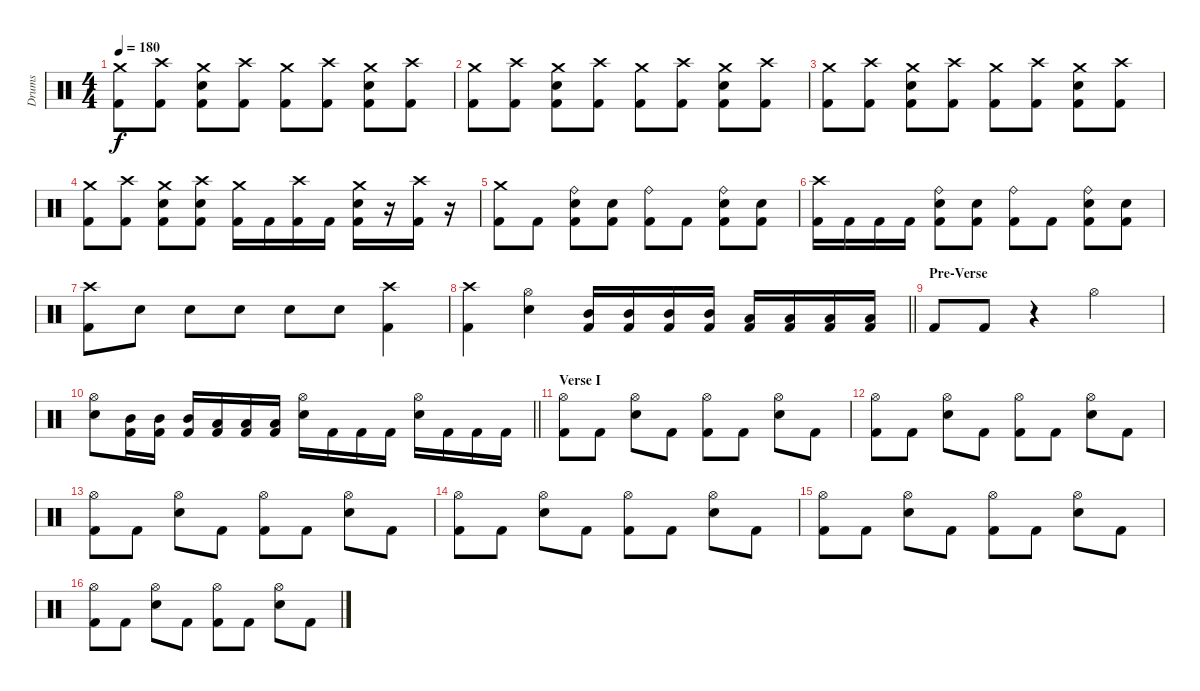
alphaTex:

\track ("Drums" "Drums") {instrument percussion}
\staff {score}
\articulation defaults
\ts (4 4)
\tempo 180
\clef neutral
\ks c
("Crash medium (hit)" "Kick (hit) 2").8{dy f} ("Crash high (hit)" "Kick (hit) 2").8 ("Crash medium (hit)" "Electric Snare (hit)" "Kick (hit) 2").8 ("Crash high (hit)" "Kick (hit) 2").8 ("Crash medium (hit)" "Kick (hit) 2").8 ("Crash high (hit)" "Kick (hit) 2").8 ("Crash medium (hit)" "Electric Snare (hit)" "Kick (hit) 2").8 ("Crash high (hit)" "Kick (hit) 2").8 |
("Crash medium (hit)" "Kick (hit) 2").8 ("Crash high (hit)" "Kick (hit) 2").8 ("Crash medium (hit)" "Electric Snare (hit)" "Kick (hit) 2").8 ("Crash high (hit)" "Kick (hit) 2").8 ("Crash medium (hit)" "Kick (hit) 2").8 ("Crash high (hit)" "Kick (hit) 2").8 ("Crash medium (hit)" "Electric Snare (hit)" "Kick (hit) 2").8 ("Crash high (hit)" "Kick (hit) 2").8 |
("Crash medium (hit)" "Kick (hit) 2").8 ("Crash high (hit)" "Kick (hit) 2").8 ("Crash medium (hit)" "Electric Snare (hit)" "Kick (hit) 2").8 ("Crash high (hit)" "Kick (hit) 2").8 ("Crash medium (hit)" "Kick (hit) 2").8 ("Crash high (hit)" "Kick (hit) 2").8 ("Crash medium (hit)" "Electric Snare (hit)" "Kick (hit) 2").8 ("Crash high (hit)" "Kick (hit) 2").8 |
("Crash medium (hit)" "Kick (hit) 2").8 ("Crash high (hit)" "Kick (hit) 2").8 ("Crash medium (hit)" "Electric Snare (hit)" "Kick (hit) 2").8 ("Crash high (hit)" "Electric Snare (hit)" "Kick (hit) 2").8 ("Crash medium (hit)" "Kick (hit) 2").16 "Kick (hit) 2".16 ("Crash high (hit)" "Kick (hit) 2").16 "Kick (hit) 2".16 ("Crash medium (hit)" "Electric Snare (hit)" "Kick (hit) 2").16 r.16 ("Crash high (hit)" "Kick (hit) 2").16 r.16 |
("Crash medium (hit)" "Kick (hit) 2").8 "Kick (hit) 2".8 ("Ride (bell)" "Electric Snare (hit)" "Kick (hit) 2").8 ("Electric Snare (hit)" "Kick (hit) 2").8 ("Ride (bell)" "Kick (hit) 2").8 "Kick (hit) 2".8 ("Ride (bell)" "Electric Snare (hit)" "Kick (hit) 2").8 ("Electric Snare (hit)" "Kick (hit) 2").8 |
("Crash high (hit)" "Kick (hit) 2").16 "Kick (hit) 2".16 "Kick (hit) 2".16 "Kick (hit) 2".16 ("Ride (bell)" "Electric Snare (hit)" "Kick (hit) 2").8 ("Electric Snare (hit)" "Kick (hit) 2").8 ("Ride (bell)" "Kick (hit) 2").8 "Kick (hit) 2".8 ("Ride (bell)" "Electric Snare (hit)" "Kick (hit) 2").8 ("Electric Snare (hit)" "Kick (hit) 2").8 |
("Crash high (hit)" "Kick (hit) 2").8 "Electric Snare (hit)".8 "Electric Snare (hit)".8 "Electric Snare (hit)".8 "Electric Snare (hit)".8 "Electric Snare (hit)".8 ("Crash high (hit)" "Kick (hit) 2").4 |
\barLineRight lightlight
("Crash high (hit)" "Kick (hit) 2").4 ("Hi-Hat (open)" "Electric Snare (hit)").4 ("Mid Tom (hit)" "Kick (hit) 2").16 ("Mid Tom (hit)" "Kick (hit) 2").16 ("Mid Tom (hit)" "Kick (hit) 2").16 ("Mid Tom (hit)" "Kick (hit) 2").16 ("Low Tom (hit)" "Kick (hit) 2").16 ("Low Tom (hit)" "Kick (hit) 2").16 ("Low Tom (hit)" "Kick (hit) 2").16 ("Low Tom (hit)" "Kick (hit) 2").16 |
\section ("" "Pre-Verse")
"Kick (hit) 2".8 "Kick (hit) 2".8 r.4 "Hi-Hat (open)".2 |
\barLineRight lightlight
("Hi-Hat (open)" "Electric Snare (hit)").8 ("Mid Tom (hit)" "Kick (hit) 2").16 ("Mid Tom (hit)" "Kick (hit) 2").16 ("Mid Tom (hit)" "Kick (hit) 2").16 ("Low Tom (hit)" "Kick (hit) 2").16 ("Low Tom (hit)" "Kick (hit) 2").16 ("Low Tom (hit)" "Kick (hit) 2").16 ("Hi-Hat (open)" "Electric Snare (hit)").16 "Kick (hit) 2".16 "Kick (hit) 2".16 "Kick (hit) 2".16 ("Hi-Hat (open)" "Electric Snare (hit)").16 "Kick (hit) 2".16 "Kick (hit) 2".16 "Kick (hit) 2".16 |
\section ("" "Verse I")
("Hi-Hat (open)" "Kick (hit) 2").8 "Kick (hit) 2".8 ("Hi-Hat (open)" "Electric Snare (hit)").8 "Kick (hit) 2".8 ("Hi-Hat (open)" "Kick (hit) 2").8 "Kick (hit) 2".8 ("Hi-Hat (open)" "Electric Snare (hit)").8 "Kick (hit) 2".8 |
("Hi-Hat (open)" "Kick (hit) 2").8 "Kick (hit) 2".8 ("Hi-Hat (open)" "Electric Snare (hit)").8 "Kick (hit) 2".8 ("Hi-Hat (open)" "Kick (hit) 2").8 "Kick (hit) 2".8 ("Hi-Hat (open)" "Electric Snare (hit)").8 "Kick (hit) 2".8 |
("Hi-Hat (open)" "Kick (hit) 2").8 "Kick (hit) 2".8 ("Hi-Hat (open)" "Electric Snare (hit)").8 "Kick (hit) 2".8 ("Hi-Hat (open)" "Kick (hit) 2").8 "Kick (hit) 2".8 ("Hi-Hat (open)" "Electric Snare (hit)").8 "Kick (hit) 2".8 |
("Hi-Hat (open)" "Kick (hit) 2").8 "Kick (hit) 2".8 ("Hi-Hat (open)" "Electric Snare (hit)").8 "Kick (hit) 2".8 ("Hi-Hat (open)" "Kick (hit) 2").8 "Kick (hit) 2".8 ("Hi-Hat (open)" "Electric Snare (hit)").8 "Kick (hit) 2".8 |
("Hi-Hat (open)" "Kick (hit) 2").8 "Kick (hit) 2".8 ("Hi-Hat (open)" "Electric Snare (hit)").8 "Kick (hit) 2".8 ("Hi-Hat (open)" "Kick (hit) 2").8 "Kick (hit) 2".8 ("Hi-Hat (open)" "Electric Snare (hit)").8 "Kick (hit) 2".8 |
("Hi-Hat (open)" "Kick (hit) 2").8 "Kick (hit) 2".8 ("Hi-Hat (open)" "Electric Snare (hit)").8 "Kick (hit) 2".8 ("Hi-Hat (open)" "Kick (hit) 2").8 "Kick (hit) 2".8 ("Hi-Hat (open)" "Electric Snare (hit)").8 "Kick (hit) 2".8
